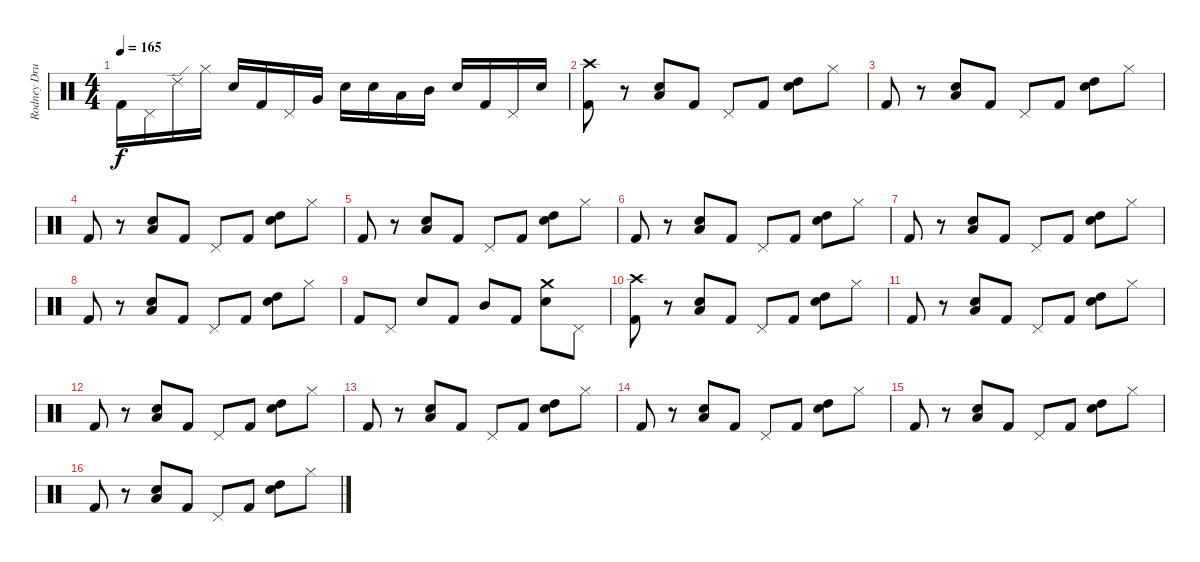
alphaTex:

\track ("Rodney Drums" "Rodney Dru") {instrument percussion}
\staff {score}
\articulation defaults
\ts (4 4)
\tempo 165
\clef neutral
\ks c "Kick (hit) 2".16{dy f} "Pedal Hi-Hat (hit)".16 "Ride (edge) 2".16 "Hi-Hat (closed)".16 "Electric Snare (hit)".16 "Kick (hit) 2".16 "Pedal Hi-Hat (hit)".16 "Very Low Tom (hit)".16 "Electric Snare (hit)".16 "Electric Snare (hit)".16 "Low Tom (hit)".16 "Mid Tom (hit)".16 "Electric Snare (hit)".16 "Kick (hit) 2".16 "Pedal Hi-Hat (hit)".16 "Electric Snare (hit)".16
|
("Kick (hit) 2" "Crash high (hit)").8 r.8 ("Low Tom (hit)" "Electric Snare (hit)").8 "Kick (hit) 2".8 "Pedal Hi-Hat (hit)".8 "Kick (hit) 2".8 ("High Tom (hit)" "Electric Snare (hit)").8 "Hi-Hat (closed)".8 |
"Kick (hit) 2".8 r.8 ("Low Tom (hit)" "Electric Snare (hit)").8 "Kick (hit) 2".8 "Pedal Hi-Hat (hit)".8 "Kick (hit) 2".8 ("High Tom (hit)" "Electric Snare (hit)").8 "Hi-Hat (closed)".8 |
"Kick (hit) 2".8 r.8 ("Low Tom (hit)" "Electric Snare (hit)").8 "Kick (hit) 2".8 "Pedal Hi-Hat (hit)".8 "Kick (hit) 2".8 ("High Tom (hit)" "Electric Snare (hit)").8 "Hi-Hat (closed)".8 |
"Kick (hit) 2".8 r.8 ("Low Tom (hit)" "Electric Snare (hit)").8 "Kick (hit) 2".8 "Pedal Hi-Hat (hit)".8 "Kick (hit) 2".8 ("High Tom (hit)" "Electric Snare (hit)").8 "Hi-Hat (closed)".8 |
"Kick (hit) 2".8 r.8 ("Low Tom (hit)" "Electric Snare (hit)").8 "Kick (hit) 2".8 "Pedal Hi-Hat (hit)".8 "Kick (hit) 2".8 ("High Tom (hit)" "Electric Snare (hit)").8 "Hi-Hat (closed)".8 |
"Kick (hit) 2".8 r.8 ("Low Tom (hit)" "Electric Snare (hit)").8 "Kick (hit) 2".8 "Pedal Hi-Hat (hit)".8 "Kick (hit) 2".8 ("High Tom (hit)" "Electric Snare (hit)").8 "Hi-Hat (closed)".8 |
"Kick (hit) 2".8 r.8 ("Low Tom (hit)" "Electric Snare (hit)").8 "Kick (hit) 2".8 "Pedal Hi-Hat (hit)".8 "Kick (hit) 2".8 ("High Tom (hit)" "Electric Snare (hit)").8 "Hi-Hat (closed)".8 |
"Kick (hit) 2".8 "Pedal Hi-Hat (hit)".8 "Electric Snare (hit)".8 "Kick (hit) 2".8 "Mid Tom (hit)".8 "Kick (hit) 2".8 ("Electric Snare (hit)" "Crash medium (hit)").8 "Pedal Hi-Hat (hit)".8 |
("Kick (hit) 2" "Crash high (hit)").8 r.8 ("Low Tom (hit)" "Electric Snare (hit)").8 "Kick (hit) 2".8 "Pedal Hi-Hat (hit)".8 "Kick (hit) 2".8 ("High Tom (hit)" "Electric Snare (hit)").8 "Hi-Hat (closed)".8 |
"Kick (hit) 2".8 r.8 ("Low Tom (hit)" "Electric Snare (hit)").8 "Kick (hit) 2".8 "Pedal Hi-Hat (hit)".8 "Kick (hit) 2".8 ("High Tom (hit)" "Electric Snare (hit)").8 "Hi-Hat (closed)".8 |
"Kick (hit) 2".8 r.8 ("Low Tom (hit)" "Electric Snare (hit)").8 "Kick (hit) 2".8 "Pedal Hi-Hat (hit)".8 "Kick (hit) 2".8 ("High Tom (hit)" "Electric Snare (hit)").8 "Hi-Hat (closed)".8 |
"Kick (hit) 2".8 r.8 ("Low Tom (hit)" "Electric Snare (hit)").8 "Kick (hit) 2".8 "Pedal Hi-Hat (hit)".8 "Kick (hit) 2".8 ("High Tom (hit)" "Electric Snare (hit)").8 "Hi-Hat (closed)".8 |
"Kick (hit) 2".8 r.8 ("Low Tom (hit)" "Electric Snare (hit)").8 "Kick (hit) 2".8 "Pedal Hi-Hat (hit)".8 "Kick (hit) 2".8 ("High Tom (hit)" "Electric Snare (hit)").8 "Hi-Hat (closed)".8 |
"Kick (hit) 2".8 r.8 ("Low Tom (hit)" "Electric Snare (hit)").8 "Kick (hit) 2".8 "Pedal Hi-Hat (hit)".8 "Kick (hit) 2".8 ("High Tom (hit)" "Electric Snare (hit)").8 "Hi-Hat (closed)".8 |
"Kick (hit) 2".8 r.8 ("Low Tom (hit)" "Electric Snare (hit)").8 "Kick (hit) 2".8 "Pedal Hi-Hat (hit)".8 "Kick (hit) 2".8 ("High Tom (hit)" "Electric Snare (hit)").8 "Hi-Hat (closed)".8
